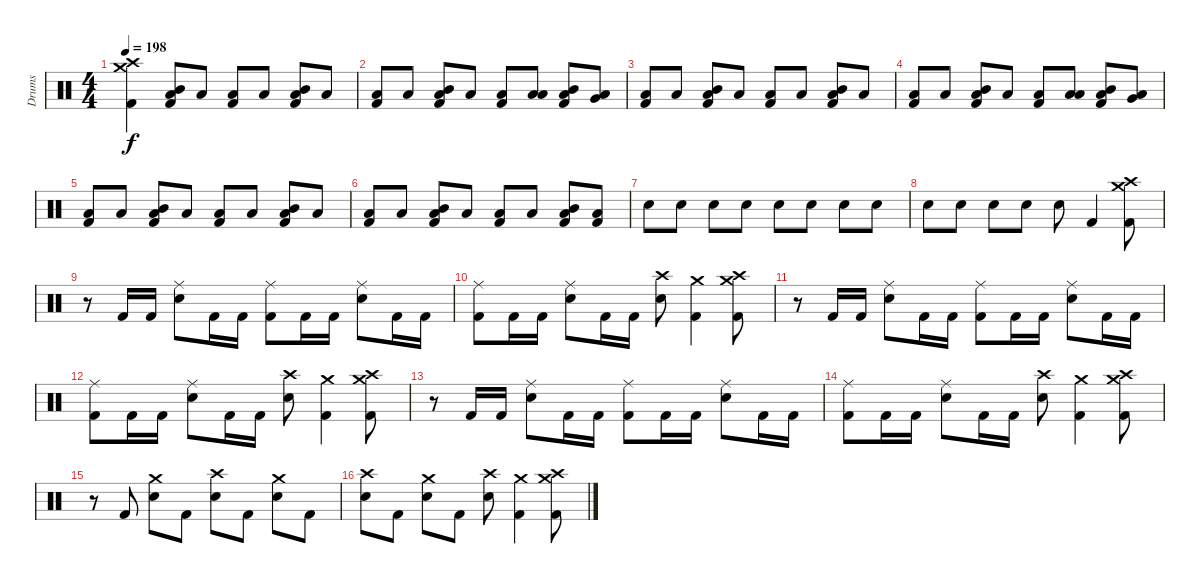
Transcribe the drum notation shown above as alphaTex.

\track ("Drums" "Drums") {instrument percussion}
\staff {score}
\articulation defaults
\ts (4 4)
\tempo 198
\clef neutral
\ks c
("Crash medium (hit)" "Crash high (hit)" "Kick (hit) 2").4{dy f} ("Low Floor Tom (hit)" "Mid Tom (hit)" "Kick (hit) 2").8 "Low Floor Tom (hit)".8 ("Low Floor Tom (hit)" "Kick (hit) 2").8 "Low Floor Tom (hit)".8 ("Low Floor Tom (hit)" "Mid Tom (hit)" "Kick (hit) 2").8 "Low Floor Tom (hit)".8 |
("Low Floor Tom (hit)" "Kick (hit) 2").8 "Low Floor Tom (hit)".8 ("Low Floor Tom (hit)" "Mid Tom (hit)" "Kick (hit) 2").8 "Low Floor Tom (hit)".8 ("Low Floor Tom (hit)" "Kick (hit) 2").8 ("Low Floor Tom (hit)" "Low Tom (hit)").8 ("Low Floor Tom (hit)" "Mid Tom (hit)" "Kick (hit) 2").8 ("Low Floor Tom (hit)" "Very Low Tom (hit)").8 |
("Low Floor Tom (hit)" "Kick (hit) 2").8 "Low Floor Tom (hit)".8 ("Low Floor Tom (hit)" "Mid Tom (hit)" "Kick (hit) 2").8 "Low Floor Tom (hit)".8 ("Low Floor Tom (hit)" "Kick (hit) 2").8 "Low Floor Tom (hit)".8 ("Low Floor Tom (hit)" "Mid Tom (hit)" "Kick (hit) 2").8 "Low Floor Tom (hit)".8 |
("Low Floor Tom (hit)" "Kick (hit) 2").8 "Low Floor Tom (hit)".8 ("Low Floor Tom (hit)" "Mid Tom (hit)" "Kick (hit) 2").8 "Low Floor Tom (hit)".8 ("Low Floor Tom (hit)" "Kick (hit) 2").8 ("Low Floor Tom (hit)" "Low Tom (hit)").8 ("Low Floor Tom (hit)" "Mid Tom (hit)" "Kick (hit) 2").8 ("Low Floor Tom (hit)" "Very Low Tom (hit)").8 |
("Low Floor Tom (hit)" "Kick (hit) 2").8 "Low Floor Tom (hit)".8 ("Low Floor Tom (hit)" "Mid Tom (hit)" "Kick (hit) 2").8 "Low Floor Tom (hit)".8 ("Low Floor Tom (hit)" "Kick (hit) 2").8 "Low Floor Tom (hit)".8 ("Low Floor Tom (hit)" "Mid Tom (hit)" "Kick (hit) 2").8 "Low Floor Tom (hit)".8 |
("Low Floor Tom (hit)" "Kick (hit) 2").8 "Low Floor Tom (hit)".8 ("Low Floor Tom (hit)" "Mid Tom (hit)" "Kick (hit) 2").8 "Low Floor Tom (hit)".8 ("Low Floor Tom (hit)" "Kick (hit) 2").8 "Low Floor Tom (hit)".8 ("Low Floor Tom (hit)" "Mid Tom (hit)" "Kick (hit) 2").8 ("Low Floor Tom (hit)" "Kick (hit) 2").8 |
"Electric Snare (hit)".8 "Electric Snare (hit)".8 "Electric Snare (hit)".8 "Electric Snare (hit)".8 "Electric Snare (hit)".8 "Electric Snare (hit)".8 "Electric Snare (hit)".8 "Electric Snare (hit)".8 |
"Electric Snare (hit)".8 "Electric Snare (hit)".8 "Electric Snare (hit)".8 "Electric Snare (hit)".8 "Electric Snare (hit)".8 "Kick (hit) 2".4 ("Crash medium (hit)" "Crash high (hit)" "Kick (hit) 2").8 |
r.8 "Kick (hit) 2".16 "Kick (hit) 2".16 ("Ride (middle)" "Electric Snare (hit)").8 "Kick (hit) 2".16 "Kick (hit) 2".16 ("Ride (middle)" "Kick (hit) 2").8 "Kick (hit) 2".16 "Kick (hit) 2".16 ("Ride (middle)" "Electric Snare (hit)").8 "Kick (hit) 2".16 "Kick (hit) 2".16 |
("Ride (middle)" "Kick (hit) 2").8 "Kick (hit) 2".16 "Kick (hit) 2".16 ("Ride (middle)" "Electric Snare (hit)").8 "Kick (hit) 2".16 "Kick (hit) 2".16 ("Crash high (hit)" "Electric Snare (hit)").8 ("Crash medium (hit)" "Kick (hit) 2").4 ("Crash medium (hit)" "Crash high (hit)" "Kick (hit) 2").8 |
r.8 "Kick (hit) 2".16 "Kick (hit) 2".16 ("Ride (middle)" "Electric Snare (hit)").8 "Kick (hit) 2".16 "Kick (hit) 2".16 ("Ride (middle)" "Kick (hit) 2").8 "Kick (hit) 2".16 "Kick (hit) 2".16 ("Ride (middle)" "Electric Snare (hit)").8 "Kick (hit) 2".16 "Kick (hit) 2".16 |
("Ride (middle)" "Kick (hit) 2").8 "Kick (hit) 2".16 "Kick (hit) 2".16 ("Ride (middle)" "Electric Snare (hit)").8 "Kick (hit) 2".16 "Kick (hit) 2".16 ("Crash high (hit)" "Electric Snare (hit)").8 ("Crash medium (hit)" "Kick (hit) 2").4 ("Crash medium (hit)" "Crash high (hit)" "Kick (hit) 2").8 |
r.8 "Kick (hit) 2".16 "Kick (hit) 2".16 ("Ride (middle)" "Electric Snare (hit)").8 "Kick (hit) 2".16 "Kick (hit) 2".16 ("Ride (middle)" "Kick (hit) 2").8 "Kick (hit) 2".16 "Kick (hit) 2".16 ("Ride (middle)" "Electric Snare (hit)").8 "Kick (hit) 2".16 "Kick (hit) 2".16 |
("Ride (middle)" "Kick (hit) 2").8 "Kick (hit) 2".16 "Kick (hit) 2".16 ("Ride (middle)" "Electric Snare (hit)").8 "Kick (hit) 2".16 "Kick (hit) 2".16 ("Crash high (hit)" "Electric Snare (hit)").8 ("Crash medium (hit)" "Kick (hit) 2").4 ("Crash medium (hit)" "Crash high (hit)" "Kick (hit) 2").8 |
r.8 "Kick (hit) 2".8 ("Crash medium (hit)" "Electric Snare (hit)").8 "Kick (hit) 2".8 ("Crash high (hit)" "Electric Snare (hit)").8 "Kick (hit) 2".8 ("Crash medium (hit)" "Electric Snare (hit)").8 "Kick (hit) 2".8 |
("Crash high (hit)" "Electric Snare (hit)").8 "Kick (hit) 2".8 ("Crash medium (hit)" "Electric Snare (hit)").8 "Kick (hit) 2".8 ("Crash high (hit)" "Electric Snare (hit)").8 ("Crash medium (hit)" "Kick (hit) 2").4 ("Crash medium (hit)" "Crash high (hit)" "Kick (hit) 2").8
